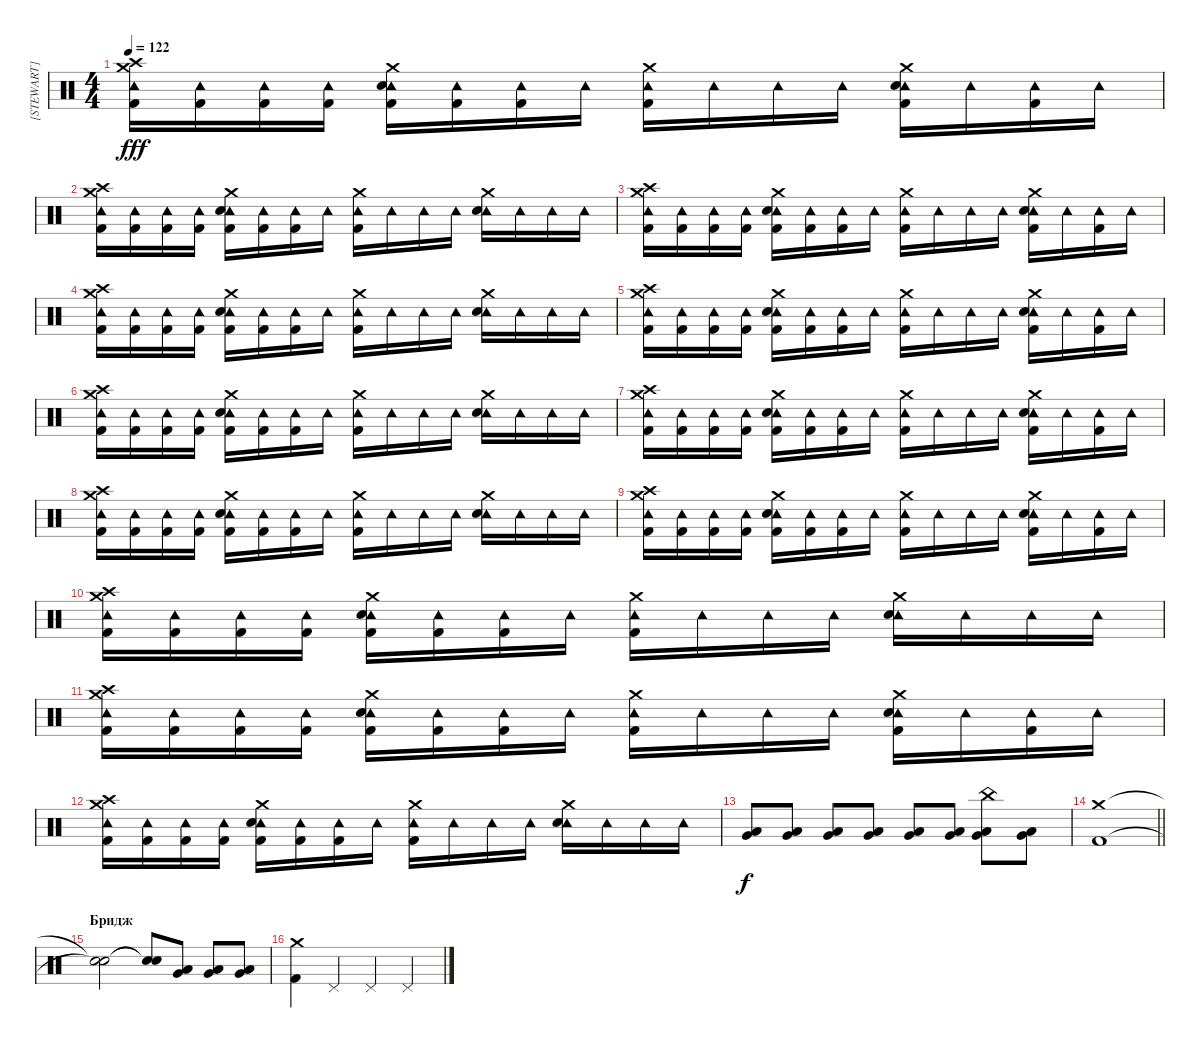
\track ("[STEWART]" "[STEWART]") {instrument percussion}
\staff {score}
\articulation defaults
\ts (4 4)
\tempo 122
\clef neutral
\ks c
("Crash medium (hit)" "Crash high (hit)" "Tambourine (hit)" "Kick (hit) 2").16{dy fff} ("Tambourine (hit)" "Kick (hit) 2").16 ("Tambourine (hit)" "Kick (hit) 2").16 ("Tambourine (hit)" "Kick (hit) 2").16 ("Crash medium (hit)" "Tambourine (hit)" "Electric Snare (hit)" "Kick (hit) 2").16 ("Tambourine (hit)" "Kick (hit) 2").16 ("Tambourine (hit)" "Kick (hit) 2").16 "Tambourine (hit)".16 ("Crash medium (hit)" "Tambourine (hit)" "Kick (hit) 2").16 "Tambourine (hit)".16 "Tambourine (hit)".16 "Tambourine (hit)".16 ("Crash medium (hit)" "Tambourine (hit)" "Electric Snare (hit)" "Kick (hit) 2").16 "Tambourine (hit)".16 ("Tambourine (hit)" "Kick (hit) 2").16 "Tambourine (hit)".16 |
("Crash medium (hit)" "Crash high (hit)" "Tambourine (hit)" "Kick (hit) 2").16 ("Tambourine (hit)" "Kick (hit) 2").16 ("Tambourine (hit)" "Kick (hit) 2").16 ("Tambourine (hit)" "Kick (hit) 2").16 ("Crash medium (hit)" "Tambourine (hit)" "Electric Snare (hit)" "Kick (hit) 2").16 ("Tambourine (hit)" "Kick (hit) 2").16 ("Tambourine (hit)" "Kick (hit) 2").16 "Tambourine (hit)".16 ("Crash medium (hit)" "Tambourine (hit)" "Kick (hit) 2").16 "Tambourine (hit)".16 "Tambourine (hit)".16 "Tambourine (hit)".16 ("Crash medium (hit)" "Tambourine (hit)" "Electric Snare (hit)").16 "Tambourine (hit)".16 "Tambourine (hit)".16 "Tambourine (hit)".16 |
("Crash medium (hit)" "Crash high (hit)" "Tambourine (hit)" "Kick (hit) 2").16 ("Tambourine (hit)" "Kick (hit) 2").16 ("Tambourine (hit)" "Kick (hit) 2").16 ("Tambourine (hit)" "Kick (hit) 2").16 ("Crash medium (hit)" "Tambourine (hit)" "Electric Snare (hit)" "Kick (hit) 2").16 ("Tambourine (hit)" "Kick (hit) 2").16 ("Tambourine (hit)" "Kick (hit) 2").16 "Tambourine (hit)".16 ("Crash medium (hit)" "Tambourine (hit)" "Kick (hit) 2").16 "Tambourine (hit)".16 "Tambourine (hit)".16 "Tambourine (hit)".16 ("Crash medium (hit)" "Tambourine (hit)" "Electric Snare (hit)" "Kick (hit) 2").16 "Tambourine (hit)".16 ("Tambourine (hit)" "Kick (hit) 2").16 "Tambourine (hit)".16 |
("Crash medium (hit)" "Crash high (hit)" "Tambourine (hit)" "Kick (hit) 2").16 ("Tambourine (hit)" "Kick (hit) 2").16 ("Tambourine (hit)" "Kick (hit) 2").16 ("Tambourine (hit)" "Kick (hit) 2").16 ("Crash medium (hit)" "Tambourine (hit)" "Electric Snare (hit)" "Kick (hit) 2").16 ("Tambourine (hit)" "Kick (hit) 2").16 ("Tambourine (hit)" "Kick (hit) 2").16 "Tambourine (hit)".16 ("Crash medium (hit)" "Tambourine (hit)" "Kick (hit) 2").16 "Tambourine (hit)".16 "Tambourine (hit)".16 "Tambourine (hit)".16 ("Crash medium (hit)" "Tambourine (hit)" "Electric Snare (hit)").16 "Tambourine (hit)".16 "Tambourine (hit)".16 "Tambourine (hit)".16 |
("Crash medium (hit)" "Crash high (hit)" "Tambourine (hit)" "Kick (hit) 2").16 ("Tambourine (hit)" "Kick (hit) 2").16 ("Tambourine (hit)" "Kick (hit) 2").16 ("Tambourine (hit)" "Kick (hit) 2").16 ("Crash medium (hit)" "Tambourine (hit)" "Electric Snare (hit)" "Kick (hit) 2").16 ("Tambourine (hit)" "Kick (hit) 2").16 ("Tambourine (hit)" "Kick (hit) 2").16 "Tambourine (hit)".16 ("Crash medium (hit)" "Tambourine (hit)" "Kick (hit) 2").16 "Tambourine (hit)".16 "Tambourine (hit)".16 "Tambourine (hit)".16 ("Crash medium (hit)" "Tambourine (hit)" "Electric Snare (hit)" "Kick (hit) 2").16 "Tambourine (hit)".16 ("Tambourine (hit)" "Kick (hit) 2").16 "Tambourine (hit)".16 |
("Crash medium (hit)" "Crash high (hit)" "Tambourine (hit)" "Kick (hit) 2").16 ("Tambourine (hit)" "Kick (hit) 2").16 ("Tambourine (hit)" "Kick (hit) 2").16 ("Tambourine (hit)" "Kick (hit) 2").16 ("Crash medium (hit)" "Tambourine (hit)" "Electric Snare (hit)" "Kick (hit) 2").16 ("Tambourine (hit)" "Kick (hit) 2").16 ("Tambourine (hit)" "Kick (hit) 2").16 "Tambourine (hit)".16 ("Crash medium (hit)" "Tambourine (hit)" "Kick (hit) 2").16 "Tambourine (hit)".16 "Tambourine (hit)".16 "Tambourine (hit)".16 ("Crash medium (hit)" "Tambourine (hit)" "Electric Snare (hit)").16 "Tambourine (hit)".16 "Tambourine (hit)".16 "Tambourine (hit)".16 |
("Crash medium (hit)" "Crash high (hit)" "Tambourine (hit)" "Kick (hit) 2").16 ("Tambourine (hit)" "Kick (hit) 2").16 ("Tambourine (hit)" "Kick (hit) 2").16 ("Tambourine (hit)" "Kick (hit) 2").16 ("Crash medium (hit)" "Tambourine (hit)" "Electric Snare (hit)" "Kick (hit) 2").16 ("Tambourine (hit)" "Kick (hit) 2").16 ("Tambourine (hit)" "Kick (hit) 2").16 "Tambourine (hit)".16 ("Crash medium (hit)" "Tambourine (hit)" "Kick (hit) 2").16 "Tambourine (hit)".16 "Tambourine (hit)".16 "Tambourine (hit)".16 ("Crash medium (hit)" "Tambourine (hit)" "Electric Snare (hit)" "Kick (hit) 2").16 "Tambourine (hit)".16 ("Tambourine (hit)" "Kick (hit) 2").16 "Tambourine (hit)".16 |
("Crash medium (hit)" "Crash high (hit)" "Tambourine (hit)" "Kick (hit) 2").16 ("Tambourine (hit)" "Kick (hit) 2").16 ("Tambourine (hit)" "Kick (hit) 2").16 ("Tambourine (hit)" "Kick (hit) 2").16 ("Crash medium (hit)" "Tambourine (hit)" "Electric Snare (hit)" "Kick (hit) 2").16 ("Tambourine (hit)" "Kick (hit) 2").16 ("Tambourine (hit)" "Kick (hit) 2").16 "Tambourine (hit)".16 ("Crash medium (hit)" "Tambourine (hit)" "Kick (hit) 2").16 "Tambourine (hit)".16 "Tambourine (hit)".16 "Tambourine (hit)".16 ("Crash medium (hit)" "Tambourine (hit)" "Electric Snare (hit)").16 "Tambourine (hit)".16 "Tambourine (hit)".16 "Tambourine (hit)".16 |
("Crash medium (hit)" "Crash high (hit)" "Tambourine (hit)" "Kick (hit) 2").16 ("Tambourine (hit)" "Kick (hit) 2").16 ("Tambourine (hit)" "Kick (hit) 2").16 ("Tambourine (hit)" "Kick (hit) 2").16 ("Crash medium (hit)" "Tambourine (hit)" "Electric Snare (hit)" "Kick (hit) 2").16 ("Tambourine (hit)" "Kick (hit) 2").16 ("Tambourine (hit)" "Kick (hit) 2").16 "Tambourine (hit)".16 ("Crash medium (hit)" "Tambourine (hit)" "Kick (hit) 2").16 "Tambourine (hit)".16 "Tambourine (hit)".16 "Tambourine (hit)".16 ("Crash medium (hit)" "Tambourine (hit)" "Electric Snare (hit)" "Kick (hit) 2").16 "Tambourine (hit)".16 ("Tambourine (hit)" "Kick (hit) 2").16 "Tambourine (hit)".16 |
("Crash medium (hit)" "Crash high (hit)" "Tambourine (hit)" "Kick (hit) 2").16 ("Tambourine (hit)" "Kick (hit) 2").16 ("Tambourine (hit)" "Kick (hit) 2").16 ("Tambourine (hit)" "Kick (hit) 2").16 ("Crash medium (hit)" "Tambourine (hit)" "Electric Snare (hit)" "Kick (hit) 2").16 ("Tambourine (hit)" "Kick (hit) 2").16 ("Tambourine (hit)" "Kick (hit) 2").16 "Tambourine (hit)".16 ("Crash medium (hit)" "Tambourine (hit)" "Kick (hit) 2").16 "Tambourine (hit)".16 "Tambourine (hit)".16 "Tambourine (hit)".16 ("Crash medium (hit)" "Tambourine (hit)" "Electric Snare (hit)").16 "Tambourine (hit)".16 "Tambourine (hit)".16 "Tambourine (hit)".16 |
("Crash medium (hit)" "Crash high (hit)" "Tambourine (hit)" "Kick (hit) 2").16 ("Tambourine (hit)" "Kick (hit) 2").16 ("Tambourine (hit)" "Kick (hit) 2").16 ("Tambourine (hit)" "Kick (hit) 2").16 ("Crash medium (hit)" "Tambourine (hit)" "Electric Snare (hit)" "Kick (hit) 2").16 ("Tambourine (hit)" "Kick (hit) 2").16 ("Tambourine (hit)" "Kick (hit) 2").16 "Tambourine (hit)".16 ("Crash medium (hit)" "Tambourine (hit)" "Kick (hit) 2").16 "Tambourine (hit)".16 "Tambourine (hit)".16 "Tambourine (hit)".16 ("Crash medium (hit)" "Tambourine (hit)" "Electric Snare (hit)" "Kick (hit) 2").16 "Tambourine (hit)".16 ("Tambourine (hit)" "Kick (hit) 2").16 "Tambourine (hit)".16 |
("Crash medium (hit)" "Crash high (hit)" "Tambourine (hit)" "Kick (hit) 2").16 ("Tambourine (hit)" "Kick (hit) 2").16 ("Tambourine (hit)" "Kick (hit) 2").16 ("Tambourine (hit)" "Kick (hit) 2").16 ("Crash medium (hit)" "Tambourine (hit)" "Electric Snare (hit)" "Kick (hit) 2").16 ("Tambourine (hit)" "Kick (hit) 2").16 ("Tambourine (hit)" "Kick (hit) 2").16 "Tambourine (hit)".16 ("Crash medium (hit)" "Tambourine (hit)" "Kick (hit) 2").16 "Tambourine (hit)".16 "Tambourine (hit)".16 "Tambourine (hit)".16 ("Crash medium (hit)" "Tambourine (hit)" "Electric Snare (hit)").16 "Tambourine (hit)".16 "Tambourine (hit)".16 "Tambourine (hit)".16 |
("Low Tom (hit)" "Very Low Tom (hit)").8{dy f} ("Low Tom (hit)" "Very Low Tom (hit)").8 ("Low Tom (hit)" "Very Low Tom (hit)").8 ("Low Tom (hit)" "Very Low Tom (hit)").8 ("Low Tom (hit)" "Very Low Tom (hit)").8 ("Low Tom (hit)" "Very Low Tom (hit)").8 ("China (hit)" "Low Tom (hit)" "Very Low Tom (hit)").8 ("Low Tom (hit)" "Very Low Tom (hit)").8 |
\barLineRight lightlight
("Crash medium (hit)" "Kick (hit) 2").1 |
\section ("" "Бридж")
("Snare (hit)"{t} "Snare (hit)"{t}).2 ("Snare (hit)"{t} "Snare (hit)"{t}).8 ("Very Low Tom (hit)" "Low Tom (hit)").8 ("Very Low Tom (hit)" "Low Tom (hit)").8 ("Very Low Tom (hit)" "Low Tom (hit)").8 |
("Crash medium (hit)" "Kick (hit) 2").4 "Pedal Hi-Hat (hit)".4 "Pedal Hi-Hat (hit)".4 "Pedal Hi-Hat (hit)".4
